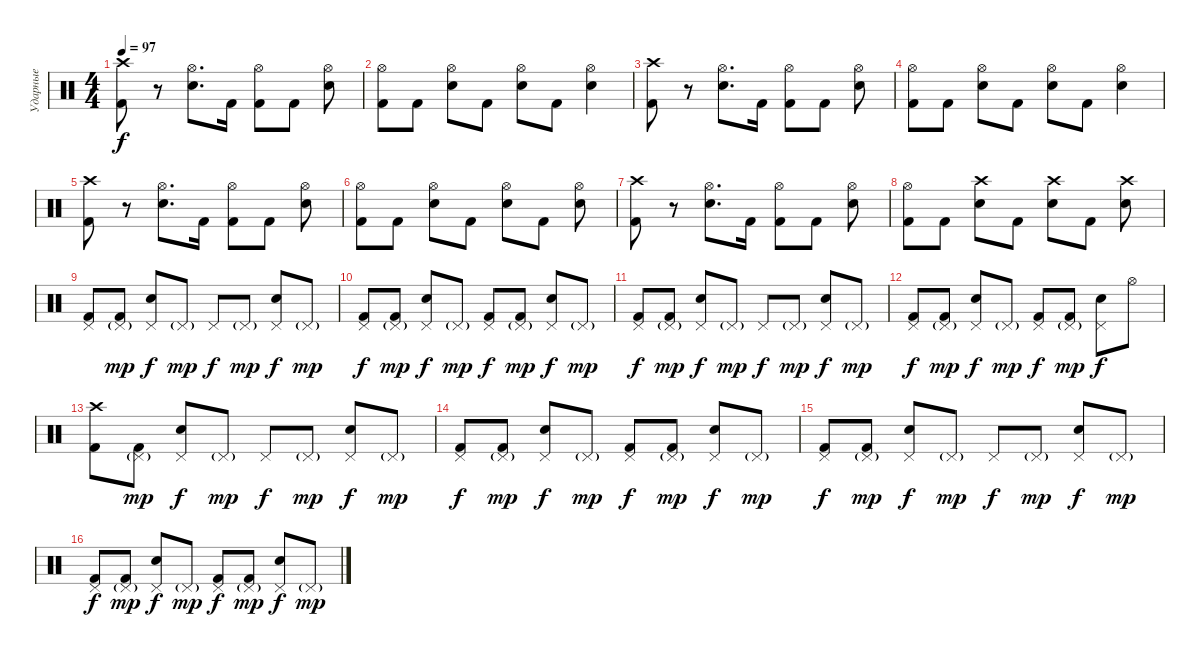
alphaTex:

\track ("Ударные" "Ударные") {instrument percussion}
\staff {score}
\articulation defaults
\ts (4 4)
\tempo 97
\clef neutral
\ks c
("Kick (hit) 2" "Crash high (hit)").8{dy f} r.8 ("Electric Snare (hit)" "Hi-Hat (open)").8{d} "Kick (hit) 2".16 ("Kick (hit) 2" "Hi-Hat (open)").8 "Kick (hit) 2".8 ("Electric Snare (hit)" "Hi-Hat (open)").8 |
("Kick (hit) 2" "Hi-Hat (open)").8 "Kick (hit) 2".8 ("Electric Snare (hit)" "Hi-Hat (open)").8 "Kick (hit) 2".8 ("Electric Snare (hit)" "Hi-Hat (open)").8 "Kick (hit) 2".8 ("Electric Snare (hit)" "Hi-Hat (open)").4 |
("Kick (hit) 2" "Crash high (hit)").8 r.8 ("Electric Snare (hit)" "Hi-Hat (open)").8{d} "Kick (hit) 2".16 ("Kick (hit) 2" "Hi-Hat (open)").8 "Kick (hit) 2".8 ("Electric Snare (hit)" "Hi-Hat (open)").8 |
("Kick (hit) 2" "Hi-Hat (open)").8 "Kick (hit) 2".8 ("Electric Snare (hit)" "Hi-Hat (open)").8 "Kick (hit) 2".8 ("Electric Snare (hit)" "Hi-Hat (open)").8 "Kick (hit) 2".8 ("Electric Snare (hit)" "Hi-Hat (open)").4 |
("Kick (hit) 2" "Crash high (hit)").8 r.8 ("Electric Snare (hit)" "Hi-Hat (open)").8{d} "Kick (hit) 2".16 ("Kick (hit) 2" "Hi-Hat (open)").8 "Kick (hit) 2".8 ("Electric Snare (hit)" "Hi-Hat (open)").8 |
("Kick (hit) 2" "Hi-Hat (open)").8 "Kick (hit) 2".8 ("Electric Snare (hit)" "Hi-Hat (open)").8 "Kick (hit) 2".8 ("Electric Snare (hit)" "Hi-Hat (open)").8 "Kick (hit) 2".8 ("Electric Snare (hit)" "Hi-Hat (open)").8 |
("Kick (hit) 2" "Crash high (hit)").8 r.8 ("Electric Snare (hit)" "Hi-Hat (open)").8{d} "Kick (hit) 2".16 ("Kick (hit) 2" "Hi-Hat (open)").8 "Kick (hit) 2".8 ("Electric Snare (hit)" "Hi-Hat (open)").8 |
("Kick (hit) 2" "Hi-Hat (open)").8 "Kick (hit) 2".8 ("Electric Snare (hit)" "Crash high (hit)").8 "Kick (hit) 2".8 ("Electric Snare (hit)" "Crash high (hit)").8 "Kick (hit) 2".8 ("Electric Snare (hit)" "Crash high (hit)").8 |
("Kick (hit) 2" "Pedal Hi-Hat (hit)").8 ("Kick (hit) 2" "Pedal Hi-Hat (hit)"{g}).8{dy mp} ("Electric Snare (hit)" "Pedal Hi-Hat (hit)").8{dy f} "Pedal Hi-Hat (hit)"{g}.8{dy mp} "Pedal Hi-Hat (hit)".8{dy f} "Pedal Hi-Hat (hit)"{g}.8{dy mp} ("Electric Snare (hit)" "Pedal Hi-Hat (hit)").8{dy f} "Pedal Hi-Hat (hit)"{g}.8{dy mp} |
("Kick (hit) 2" "Pedal Hi-Hat (hit)").8{dy f} ("Kick (hit) 2" "Pedal Hi-Hat (hit)"{g}).8{dy mp} ("Electric Snare (hit)" "Pedal Hi-Hat (hit)").8{dy f} "Pedal Hi-Hat (hit)"{g}.8{dy mp} ("Kick (hit) 2" "Pedal Hi-Hat (hit)").8{dy f} ("Kick (hit) 2" "Pedal Hi-Hat (hit)"{g}).8{dy mp} ("Electric Snare (hit)" "Pedal Hi-Hat (hit)").8{dy f} "Pedal Hi-Hat (hit)"{g}.8{dy mp} |
("Kick (hit) 2" "Pedal Hi-Hat (hit)").8{dy f} ("Kick (hit) 2" "Pedal Hi-Hat (hit)"{g}).8{dy mp} ("Electric Snare (hit)" "Pedal Hi-Hat (hit)").8{dy f} "Pedal Hi-Hat (hit)"{g}.8{dy mp} "Pedal Hi-Hat (hit)".8{dy f} "Pedal Hi-Hat (hit)"{g}.8{dy mp} ("Electric Snare (hit)" "Pedal Hi-Hat (hit)").8{dy f} "Pedal Hi-Hat (hit)"{g}.8{dy mp} |
("Kick (hit) 2" "Pedal Hi-Hat (hit)").8{dy f} ("Kick (hit) 2" "Pedal Hi-Hat (hit)"{g}).8{dy mp} ("Electric Snare (hit)" "Pedal Hi-Hat (hit)").8{dy f} "Pedal Hi-Hat (hit)"{g}.8{dy mp} ("Kick (hit) 2" "Pedal Hi-Hat (hit)").8{dy f} ("Kick (hit) 2" "Pedal Hi-Hat (hit)"{g}).8{dy mp} ("Electric Snare (hit)" "Pedal Hi-Hat (hit)").8{dy f} "Hi-Hat (open)".8 |
("Kick (hit) 2" "Crash high (hit)").8 ("Kick (hit) 2" "Pedal Hi-Hat (hit)"{g}).8{dy mp} ("Electric Snare (hit)" "Pedal Hi-Hat (hit)").8{dy f} "Pedal Hi-Hat (hit)"{g}.8{dy mp} "Pedal Hi-Hat (hit)".8{dy f} "Pedal Hi-Hat (hit)"{g}.8{dy mp} ("Electric Snare (hit)" "Pedal Hi-Hat (hit)").8{dy f} "Pedal Hi-Hat (hit)"{g}.8{dy mp} |
("Kick (hit) 2" "Pedal Hi-Hat (hit)").8{dy f} ("Kick (hit) 2" "Pedal Hi-Hat (hit)"{g}).8{dy mp} ("Electric Snare (hit)" "Pedal Hi-Hat (hit)").8{dy f} "Pedal Hi-Hat (hit)"{g}.8{dy mp} ("Kick (hit) 2" "Pedal Hi-Hat (hit)").8{dy f} ("Kick (hit) 2" "Pedal Hi-Hat (hit)"{g}).8{dy mp} ("Electric Snare (hit)" "Pedal Hi-Hat (hit)").8{dy f} "Pedal Hi-Hat (hit)"{g}.8{dy mp} |
("Kick (hit) 2" "Pedal Hi-Hat (hit)").8{dy f} ("Kick (hit) 2" "Pedal Hi-Hat (hit)"{g}).8{dy mp} ("Electric Snare (hit)" "Pedal Hi-Hat (hit)").8{dy f} "Pedal Hi-Hat (hit)"{g}.8{dy mp} "Pedal Hi-Hat (hit)".8{dy f} "Pedal Hi-Hat (hit)"{g}.8{dy mp} ("Electric Snare (hit)" "Pedal Hi-Hat (hit)").8{dy f} "Pedal Hi-Hat (hit)"{g}.8{dy mp} |
("Kick (hit) 2" "Pedal Hi-Hat (hit)").8{dy f} ("Kick (hit) 2" "Pedal Hi-Hat (hit)"{g}).8{dy mp} ("Electric Snare (hit)" "Pedal Hi-Hat (hit)").8{dy f} "Pedal Hi-Hat (hit)"{g}.8{dy mp} ("Kick (hit) 2" "Pedal Hi-Hat (hit)").8{dy f} ("Kick (hit) 2" "Pedal Hi-Hat (hit)"{g}).8{dy mp} ("Electric Snare (hit)" "Pedal Hi-Hat (hit)").8{dy f} "Pedal Hi-Hat (hit)"{g}.8{dy mp}
